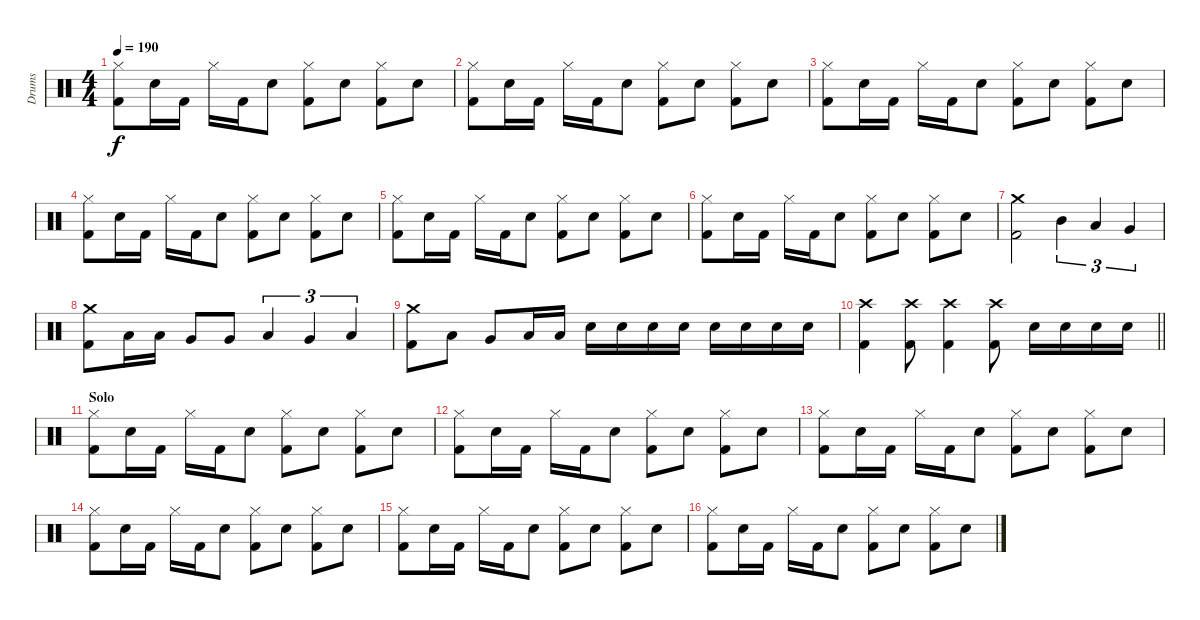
\track ("Drums" "Drums") {instrument percussion}
\staff {score}
\articulation defaults
\ts (4 4)
\tempo 190
\clef neutral
\ks c
("Hi-Hat (closed)" "Kick (hit) 2").8{dy f} "Electric Snare (hit)".16 "Kick (hit) 2".16 "Hi-Hat (closed)".16 "Kick (hit) 2".16 "Electric Snare (hit)".8 ("Hi-Hat (closed)" "Kick (hit) 2").8 "Electric Snare (hit)".8 ("Hi-Hat (closed)" "Kick (hit) 2").8 "Electric Snare (hit)".8 |
("Hi-Hat (closed)" "Kick (hit) 2").8 "Electric Snare (hit)".16 "Kick (hit) 2".16 "Hi-Hat (closed)".16 "Kick (hit) 2".16 "Electric Snare (hit)".8 ("Hi-Hat (closed)" "Kick (hit) 2").8 "Electric Snare (hit)".8 ("Hi-Hat (closed)" "Kick (hit) 2").8 "Electric Snare (hit)".8 |
("Hi-Hat (closed)" "Kick (hit) 2").8 "Electric Snare (hit)".16 "Kick (hit) 2".16 "Hi-Hat (closed)".16 "Kick (hit) 2".16 "Electric Snare (hit)".8 ("Hi-Hat (closed)" "Kick (hit) 2").8 "Electric Snare (hit)".8 ("Hi-Hat (closed)" "Kick (hit) 2").8 "Electric Snare (hit)".8 |
("Hi-Hat (closed)" "Kick (hit) 2").8 "Electric Snare (hit)".16 "Kick (hit) 2".16 "Hi-Hat (closed)".16 "Kick (hit) 2".16 "Electric Snare (hit)".8 ("Hi-Hat (closed)" "Kick (hit) 2").8 "Electric Snare (hit)".8 ("Hi-Hat (closed)" "Kick (hit) 2").8 "Electric Snare (hit)".8 |
("Hi-Hat (closed)" "Kick (hit) 2").8 "Electric Snare (hit)".16 "Kick (hit) 2".16 "Hi-Hat (closed)".16 "Kick (hit) 2".16 "Electric Snare (hit)".8 ("Hi-Hat (closed)" "Kick (hit) 2").8 "Electric Snare (hit)".8 ("Hi-Hat (closed)" "Kick (hit) 2").8 "Electric Snare (hit)".8 |
("Hi-Hat (closed)" "Kick (hit) 2").8 "Electric Snare (hit)".16 "Kick (hit) 2".16 "Hi-Hat (closed)".16 "Kick (hit) 2".16 "Electric Snare (hit)".8 ("Hi-Hat (closed)" "Kick (hit) 2").8 "Electric Snare (hit)".8 ("Hi-Hat (closed)" "Kick (hit) 2").8 "Electric Snare (hit)".8 |
("Crash medium (hit)" "Kick (hit) 2").2 "Mid Tom (hit)".4{tu (3 2)} "Low Tom (hit)".4{tu (3 2)} "Very Low Tom (hit)".4{tu (3 2)} |
("Crash medium (hit)" "Kick (hit) 2").8 "Low Tom (hit)".16 "Low Tom (hit)".16 "Very Low Tom (hit)".8 "Very Low Tom (hit)".8 "Low Tom (hit)".4{tu (3 2)} "Very Low Tom (hit)".4{tu (3 2)} "Low Floor Tom (hit)".4{tu (3 2)} |
("Crash medium (hit)" "Kick (hit) 2").8 "Low Tom (hit)".8 "Very Low Tom (hit)".8 "Low Tom (hit)".16 "Low Tom (hit)".16 "Electric Snare (hit)".16 "Electric Snare (hit)".16 "Electric Snare (hit)".16 "Electric Snare (hit)".16 "Electric Snare (hit)".16 "Electric Snare (hit)".16 "Electric Snare (hit)".16 "Electric Snare (hit)".16 |
\barLineRight lightlight
("Crash high (hit)" "Kick (hit) 2").4 ("Crash high (hit)" "Kick (hit) 2").8 ("Crash high (hit)" "Kick (hit) 2").4 ("Crash high (hit)" "Kick (hit) 2").8 "Electric Snare (hit)".16 "Electric Snare (hit)".16 "Electric Snare (hit)".16 "Electric Snare (hit)".16 |
\section ("" "Solo")
("Hi-Hat (closed)" "Kick (hit) 2").8 "Electric Snare (hit)".16 "Kick (hit) 2".16 "Hi-Hat (closed)".16 "Kick (hit) 2".16 "Electric Snare (hit)".8 ("Hi-Hat (closed)" "Kick (hit) 2").8 "Electric Snare (hit)".8 ("Hi-Hat (closed)" "Kick (hit) 2").8 "Electric Snare (hit)".8 |
("Hi-Hat (closed)" "Kick (hit) 2").8 "Electric Snare (hit)".16 "Kick (hit) 2".16 "Hi-Hat (closed)".16 "Kick (hit) 2".16 "Electric Snare (hit)".8 ("Hi-Hat (closed)" "Kick (hit) 2").8 "Electric Snare (hit)".8 ("Hi-Hat (closed)" "Kick (hit) 2").8 "Electric Snare (hit)".8 |
("Hi-Hat (closed)" "Kick (hit) 2").8 "Electric Snare (hit)".16 "Kick (hit) 2".16 "Hi-Hat (closed)".16 "Kick (hit) 2".16 "Electric Snare (hit)".8 ("Hi-Hat (closed)" "Kick (hit) 2").8 "Electric Snare (hit)".8 ("Hi-Hat (closed)" "Kick (hit) 2").8 "Electric Snare (hit)".8 |
("Hi-Hat (closed)" "Kick (hit) 2").8 "Electric Snare (hit)".16 "Kick (hit) 2".16 "Hi-Hat (closed)".16 "Kick (hit) 2".16 "Electric Snare (hit)".8 ("Hi-Hat (closed)" "Kick (hit) 2").8 "Electric Snare (hit)".8 ("Hi-Hat (closed)" "Kick (hit) 2").8 "Electric Snare (hit)".8 |
("Hi-Hat (closed)" "Kick (hit) 2").8 "Electric Snare (hit)".16 "Kick (hit) 2".16 "Hi-Hat (closed)".16 "Kick (hit) 2".16 "Electric Snare (hit)".8 ("Hi-Hat (closed)" "Kick (hit) 2").8 "Electric Snare (hit)".8 ("Hi-Hat (closed)" "Kick (hit) 2").8 "Electric Snare (hit)".8 |
("Hi-Hat (closed)" "Kick (hit) 2").8 "Electric Snare (hit)".16 "Kick (hit) 2".16 "Hi-Hat (closed)".16 "Kick (hit) 2".16 "Electric Snare (hit)".8 ("Hi-Hat (closed)" "Kick (hit) 2").8 "Electric Snare (hit)".8 ("Hi-Hat (closed)" "Kick (hit) 2").8 "Electric Snare (hit)".8
